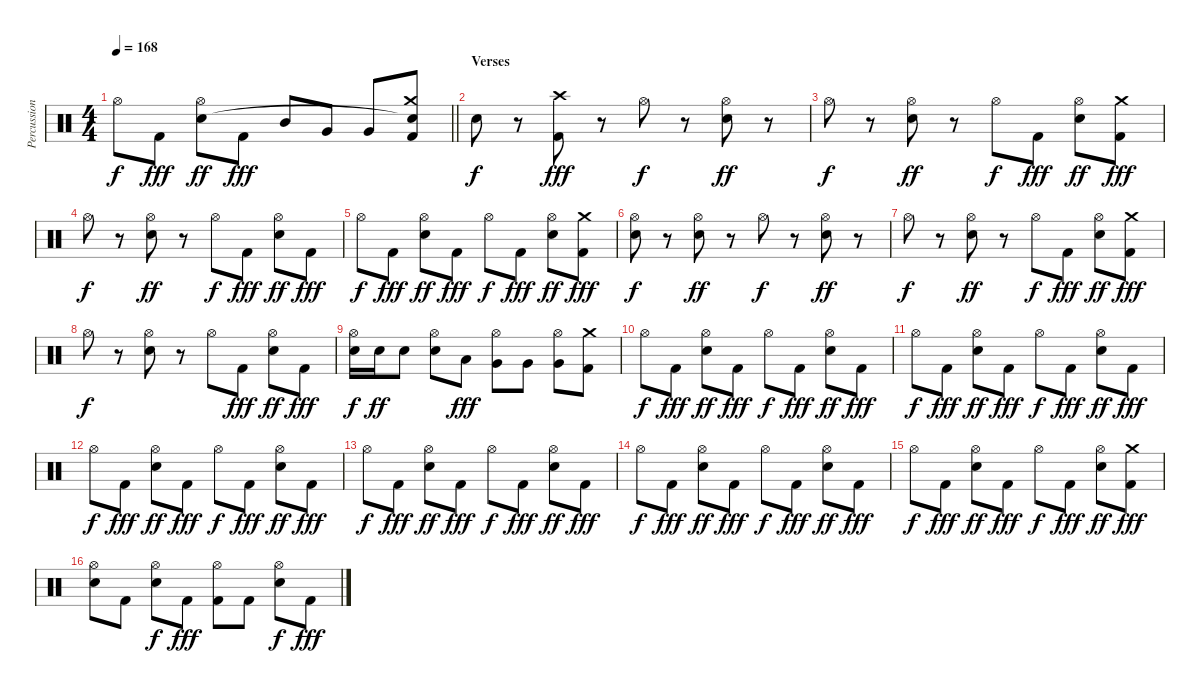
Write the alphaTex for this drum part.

\track ("Percussion" "Percussion") {instrument percussion}
\staff {score}
\articulation defaults
\ts (4 4)
\tempo 168
\clef neutral
\barLineRight lightlight
\ks c "Hi-Hat (open)".8{dy f} "Kick (hit) 2".8{dy fff}
("Hi-Hat (open)" "Electric Snare (hit)").8{dy ff} "Kick (hit) 2".8{dy fff} "Mid Tom (hit)".8 "Very Low Tom (hit)".8 "Very Low Tom (hit)".8 ("Crash medium (hit)" "Snare (hit)"{t} "Kick (hit) 2").8 |
\section ("" "Verses")
"Snare (hit)".8{dy f} r.8 ("Crash high (hit)" "Kick (hit) 2").8{dy fff} r.8 "Hi-Hat (open)".8{dy f} r.8 ("Hi-Hat (open)" "Electric Snare (hit)").8{dy ff} r.8 |
"Hi-Hat (open)".8{dy f} r.8 ("Hi-Hat (open)" "Electric Snare (hit)").8{dy ff} r.8 "Hi-Hat (open)".8{dy f} "Kick (hit) 2".8{dy fff} ("Hi-Hat (open)" "Electric Snare (hit)").8{dy ff} ("Crash medium (hit)" "Kick (hit) 2").8{dy fff} |
"Hi-Hat (open)".8{dy f} r.8 ("Hi-Hat (open)" "Electric Snare (hit)").8{dy ff} r.8 "Hi-Hat (open)".8{dy f} "Kick (hit) 2".8{dy fff} ("Hi-Hat (open)" "Electric Snare (hit)").8{dy ff} "Kick (hit) 2".8{dy fff} |
"Hi-Hat (open)".8{dy f} "Kick (hit) 2".8{dy fff} ("Hi-Hat (open)" "Electric Snare (hit)").8{dy ff} "Kick (hit) 2".8{dy fff} "Hi-Hat (open)".8{dy f} "Kick (hit) 2".8{dy fff} ("Hi-Hat (open)" "Electric Snare (hit)").8{dy ff} ("Crash medium (hit)" "Kick (hit) 2").8{dy fff} |
("Hi-Hat (open)" "Snare (hit)").8{dy f} r.8 ("Hi-Hat (open)" "Electric Snare (hit)").8{dy ff} r.8 "Hi-Hat (open)".8{dy f} r.8 ("Hi-Hat (open)" "Electric Snare (hit)").8{dy ff} r.8 |
"Hi-Hat (open)".8{dy f} r.8 ("Hi-Hat (open)" "Electric Snare (hit)").8{dy ff} r.8 "Hi-Hat (open)".8{dy f} "Kick (hit) 2".8{dy fff} ("Hi-Hat (open)" "Electric Snare (hit)").8{dy ff} ("Crash medium (hit)" "Kick (hit) 2").8{dy fff} |
"Hi-Hat (open)".8{dy f} r.8 ("Hi-Hat (open)" "Electric Snare (hit)").8 r.8 "Hi-Hat (open)".8 "Kick (hit) 2".8{dy fff} ("Hi-Hat (open)" "Electric Snare (hit)").8{dy ff} "Kick (hit) 2".8{dy fff} |
("Hi-Hat (open)" "Electric Snare (hit)").16{dy f} "Electric Snare (hit)".16{dy ff} "Electric Snare (hit)".8 ("Hi-Hat (open)" "Electric Snare (hit)").8 "Low Tom (hit)".8{dy fff} ("Hi-Hat (open)" "Very Low Tom (hit)").8 "Very Low Tom (hit)".8 ("Hi-Hat (open)" "Very Low Tom (hit)").8 ("Crash medium (hit)" "Kick (hit) 2").8 |
"Hi-Hat (open)".8{dy f} "Kick (hit) 2".8{dy fff} ("Hi-Hat (open)" "Electric Snare (hit)").8{dy ff} "Kick (hit) 2".8{dy fff} "Hi-Hat (open)".8{dy f} "Kick (hit) 2".8{dy fff} ("Hi-Hat (open)" "Electric Snare (hit)").8{dy ff} "Kick (hit) 2".8{dy fff} |
"Hi-Hat (open)".8{dy f} "Kick (hit) 2".8{dy fff} ("Hi-Hat (open)" "Electric Snare (hit)").8{dy ff} "Kick (hit) 2".8{dy fff} "Hi-Hat (open)".8{dy f} "Kick (hit) 2".8{dy fff} ("Hi-Hat (open)" "Electric Snare (hit)").8{dy ff} "Kick (hit) 2".8{dy fff} |
"Hi-Hat (open)".8{dy f} "Kick (hit) 2".8{dy fff} ("Hi-Hat (open)" "Electric Snare (hit)").8{dy ff} "Kick (hit) 2".8{dy fff} "Hi-Hat (open)".8{dy f} "Kick (hit) 2".8{dy fff} ("Hi-Hat (open)" "Electric Snare (hit)").8{dy ff} "Kick (hit) 2".8{dy fff} |
"Hi-Hat (open)".8{dy f} "Kick (hit) 2".8{dy fff} ("Hi-Hat (open)" "Electric Snare (hit)").8{dy ff} "Kick (hit) 2".8{dy fff} "Hi-Hat (open)".8{dy f} "Kick (hit) 2".8{dy fff} ("Hi-Hat (open)" "Electric Snare (hit)").8{dy ff} "Kick (hit) 2".8{dy fff} |
"Hi-Hat (open)".8{dy f} "Kick (hit) 2".8{dy fff} ("Hi-Hat (open)" "Electric Snare (hit)").8{dy ff} "Kick (hit) 2".8{dy fff} "Hi-Hat (open)".8{dy f} "Kick (hit) 2".8{dy fff} ("Hi-Hat (open)" "Electric Snare (hit)").8{dy ff} "Kick (hit) 2".8{dy fff} |
"Hi-Hat (open)".8{dy f} "Kick (hit) 2".8{dy fff} ("Hi-Hat (open)" "Electric Snare (hit)").8{dy ff} "Kick (hit) 2".8{dy fff} "Hi-Hat (open)".8{dy f} "Kick (hit) 2".8{dy fff} ("Hi-Hat (open)" "Electric Snare (hit)").8{dy ff} ("Crash medium (hit)" "Kick (hit) 2").8{dy fff} |
("Hi-Hat (open)" "Snare (hit)").8 "Kick (hit) 2".8 ("Hi-Hat (open)" "Electric Snare (hit)").8{dy f} "Kick (hit) 2".8{dy fff} ("Hi-Hat (open)" "Kick (hit) 2").8 "Kick (hit) 2".8 ("Hi-Hat (open)" "Electric Snare (hit)").8{dy f} "Kick (hit) 2".8{dy fff}
